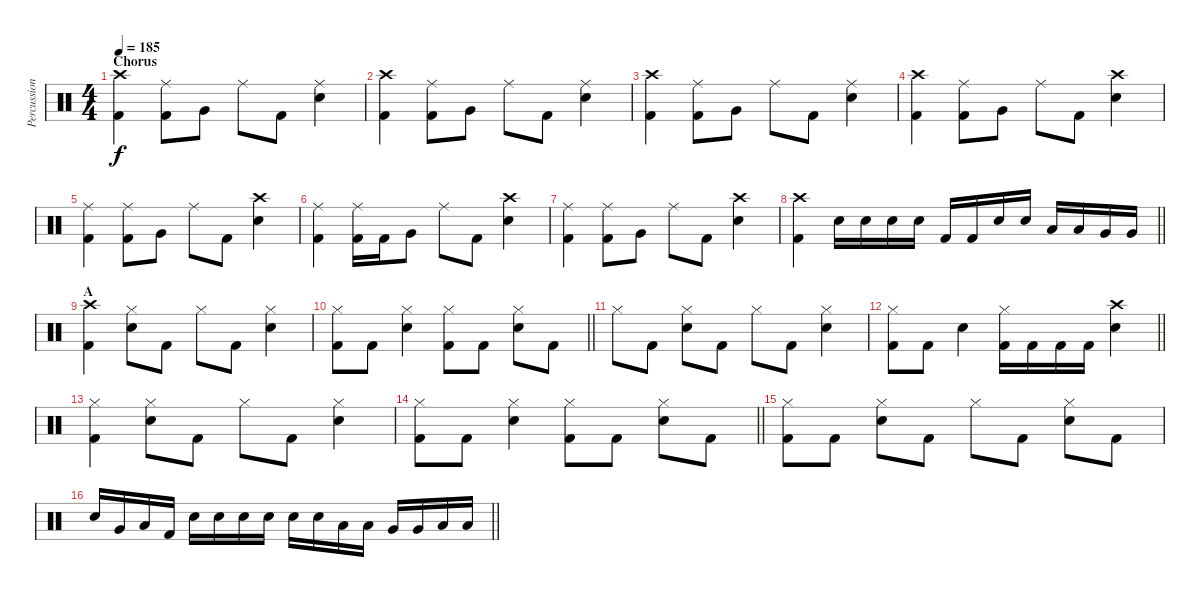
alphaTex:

\track ("Percussion" "Percussion") {instrument percussion}
\staff {score}
\articulation defaults
\ts (4 4)
\section ("" "Chorus")
\tempo 185
\clef neutral
\ks c
("Crash high (hit)" "Kick (hit) 2").4{dy f} ("Ride (middle)" "Kick (hit) 2").8 "Very Low Tom (hit)".8 "Ride (middle)".8 "Kick (hit) 2".8 ("Ride (middle)" "Snare (hit) 2").4 |
("Crash high (hit)" "Kick (hit) 2").4 ("Ride (middle)" "Kick (hit) 2").8 "Very Low Tom (hit)".8 "Ride (middle)".8 "Kick (hit) 2".8 ("Ride (middle)" "Snare (hit) 2").4 |
("Crash high (hit)" "Kick (hit) 2").4 ("Ride (middle)" "Kick (hit) 2").8 "Very Low Tom (hit)".8 "Ride (middle)".8 "Kick (hit) 2".8 ("Ride (middle)" "Snare (hit) 2").4 |
("Crash high (hit)" "Kick (hit) 2").4 ("Ride (middle)" "Kick (hit) 2").8 "Very Low Tom (hit)".8 "Ride (middle)".8 "Kick (hit) 2".8 ("Crash high (hit)" "Snare (hit) 2").4 |
("Ride (middle)" "Kick (hit) 2").4 ("Ride (middle)" "Kick (hit) 2").8 "Very Low Tom (hit)".8 "Ride (middle)".8 "Kick (hit) 2".8 ("Crash high (hit)" "Snare (hit) 2").4 |
("Ride (middle)" "Kick (hit) 2").4 ("Ride (middle)" "Kick (hit) 2").16 "Kick (hit) 2".16 "Very Low Tom (hit)".8 "Ride (middle)".8 "Kick (hit) 2".8 ("Crash high (hit)" "Snare (hit) 2").4 |
("Ride (middle)" "Kick (hit) 2").4 ("Ride (middle)" "Kick (hit) 2").8 "Very Low Tom (hit)".8 "Ride (middle)".8 "Kick (hit) 2".8 ("Crash high (hit)" "Snare (hit) 2").4 |
\barLineRight lightlight
("Crash high (hit)" "Kick (hit) 2").4 "Snare (hit) 2".16 "Snare (hit) 2".16 "Snare (hit) 2".16 "Snare (hit) 2".16 "Kick (hit) 2".16 "Kick (hit) 2".16 "Snare (hit) 2".16 "Snare (hit) 2".16 "Low Tom (hit)".16 "Low Tom (hit)".16 "Very Low Tom (hit)".16 "Very Low Tom (hit)".16 |
\section ("" "A")
("Crash high (hit)" "Kick (hit) 2").4 ("Hi-Hat (closed)" "Snare (hit) 2").8 "Kick (hit) 2".8 "Hi-Hat (closed)".8 "Kick (hit) 2".8 ("Hi-Hat (closed)" "Snare (hit) 2").4 |
\barLineRight lightlight
("Hi-Hat (closed)" "Kick (hit) 2").8 "Kick (hit) 2".8 ("Hi-Hat (closed)" "Snare (hit) 2").4 ("Hi-Hat (closed)" "Kick (hit) 2").8 "Kick (hit) 2".8 ("Hi-Hat (closed)" "Snare (hit) 2").8 "Kick (hit) 2".8 |
"Hi-Hat (closed)".8 "Kick (hit) 2".8 ("Hi-Hat (closed)" "Snare (hit) 2").8 "Kick (hit) 2".8 "Hi-Hat (closed)".8 "Kick (hit) 2".8 ("Hi-Hat (closed)" "Snare (hit) 2").4 |
\barLineRight lightlight
("Hi-Hat (closed)" "Kick (hit) 2").8 "Kick (hit) 2".8 "Snare (hit) 2".4 ("Hi-Hat (closed)" "Kick (hit) 2").16 "Kick (hit) 2".16 "Kick (hit) 2".16 "Kick (hit) 2".16 ("Crash high (hit)" "Snare (hit) 2").4 |
("Hi-Hat (closed)" "Kick (hit) 2").4 ("Hi-Hat (closed)" "Snare (hit) 2").8 "Kick (hit) 2".8 "Hi-Hat (closed)".8 "Kick (hit) 2".8 ("Hi-Hat (closed)" "Snare (hit) 2").4 |
\barLineRight lightlight
("Hi-Hat (closed)" "Kick (hit) 2").8 "Kick (hit) 2".8 ("Hi-Hat (closed)" "Snare (hit) 2").4 ("Hi-Hat (closed)" "Kick (hit) 2").8 "Kick (hit) 2".8 ("Hi-Hat (closed)" "Snare (hit) 2").8 "Kick (hit) 2".8 |
("Hi-Hat (closed)" "Kick (hit) 2").8 "Kick (hit) 2".8 ("Hi-Hat (closed)" "Snare (hit) 2").8 "Kick (hit) 2".8 "Hi-Hat (closed)".8 "Kick (hit) 2".8 ("Hi-Hat (closed)" "Snare (hit) 2").8 "Kick (hit) 2".8 |
\barLineRight lightlight "Snare (hit) 2".16 "Very Low Tom (hit)".16 "Low Floor Tom (hit)".16 "Kick (hit) 2".16 "Snare (hit) 2".16 "Snare (hit) 2".16 "Snare (hit) 2".16 "Snare (hit) 2".16 "Snare (hit) 2".16 "Snare (hit) 2".16 "Low Tom (hit)".16 "Low Tom (hit)".16 "Very Low Tom (hit)".16 "Very Low Tom (hit)".16 "Low Floor Tom (hit)".16 "Low Floor Tom (hit)".16
